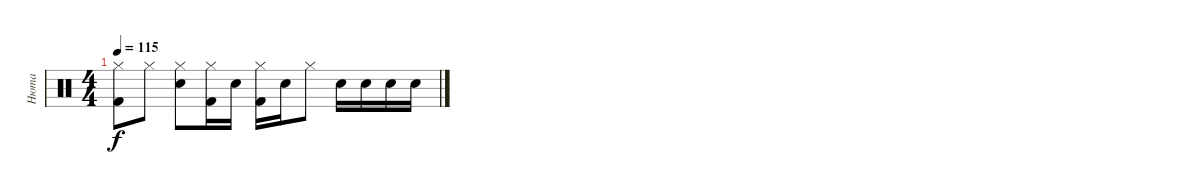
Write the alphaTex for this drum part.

\track ("Нюта" "Нюта") {instrument percussion}
\staff {score}
\articulation defaults
\ts (4 4)
\tempo 115
\clef neutral
\ks c
("Hi-Hat (closed)" "Kick (hit) 2").8{dy f} "Hi-Hat (closed)".8 ("Hi-Hat (closed)" "Snare (hit) 2").8 ("Hi-Hat (closed)" "Kick (hit) 2").16 "Snare (hit) 2".16 ("Hi-Hat (closed)" "Kick (hit) 2").16 "Snare (hit) 2".16 "Hi-Hat (closed)".8 "Snare (hit) 2".16 "Snare (hit) 2".16 "Snare (hit) 2".16 "Snare (hit) 2".16
